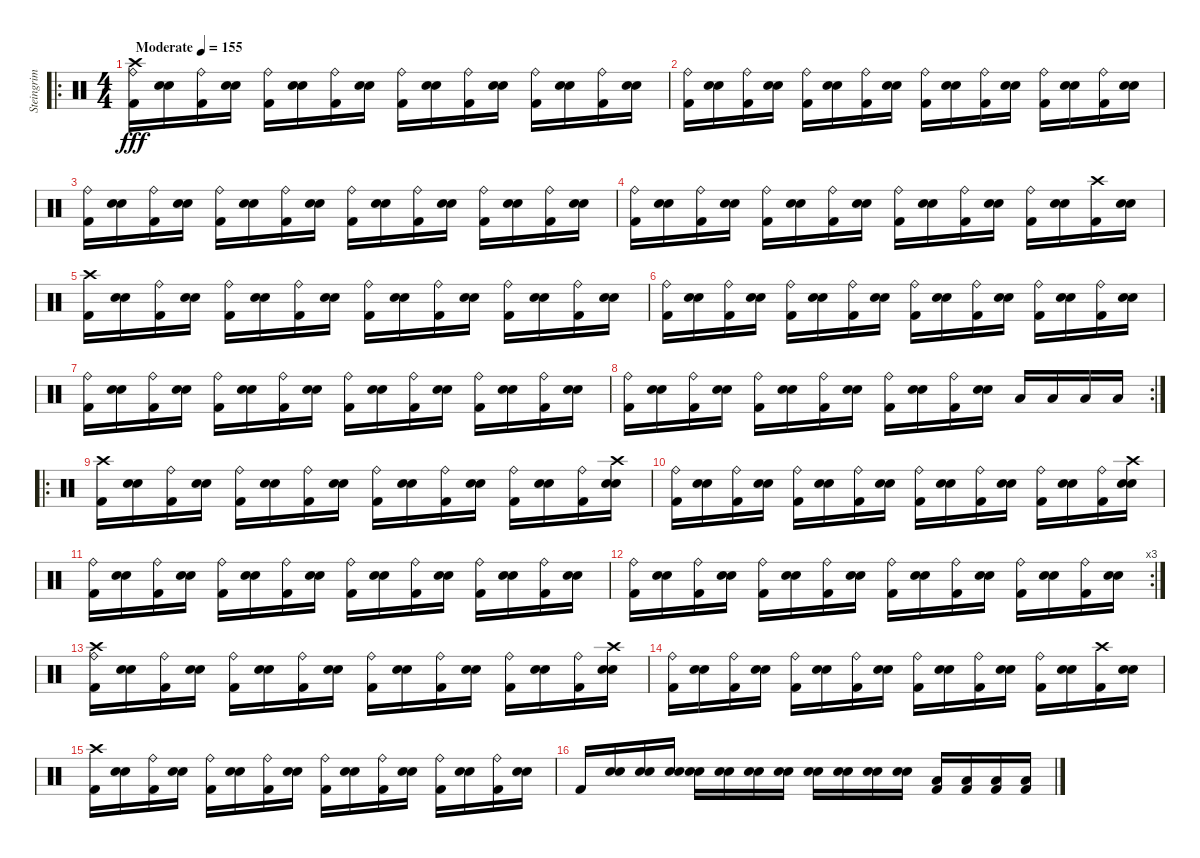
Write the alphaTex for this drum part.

\track ("Steingrim" "Steingrim") {instrument percussion}
\staff {score}
\articulation defaults
\ro
\ts (4 4)
\tempo (155 "Moderate")
\clef neutral
\ks c
("Kick (hit) 2" "Ride (bell)" "Crash high (hit)").16{dy fff} ("Snare (hit) 2" "Electric Snare (hit)").16 ("Kick (hit) 2" "Ride (bell)").16 ("Snare (hit) 2" "Electric Snare (hit)").16 ("Kick (hit) 2" "Ride (bell)").16 ("Snare (hit) 2" "Electric Snare (hit)").16 ("Kick (hit) 2" "Ride (bell)").16 ("Snare (hit) 2" "Electric Snare (hit)").16 ("Kick (hit) 2" "Ride (bell)").16 ("Snare (hit) 2" "Electric Snare (hit)").16 ("Kick (hit) 2" "Ride (bell)").16 ("Snare (hit) 2" "Electric Snare (hit)").16 ("Kick (hit) 2" "Ride (bell)").16 ("Snare (hit) 2" "Electric Snare (hit)").16 ("Kick (hit) 2" "Ride (bell)").16 ("Snare (hit) 2" "Electric Snare (hit)").16 |
("Kick (hit) 2" "Ride (bell)").16 ("Snare (hit) 2" "Electric Snare (hit)").16 ("Kick (hit) 2" "Ride (bell)").16 ("Snare (hit) 2" "Electric Snare (hit)").16 ("Kick (hit) 2" "Ride (bell)").16 ("Snare (hit) 2" "Electric Snare (hit)").16 ("Kick (hit) 2" "Ride (bell)").16 ("Snare (hit) 2" "Electric Snare (hit)").16 ("Kick (hit) 2" "Ride (bell)").16 ("Snare (hit) 2" "Electric Snare (hit)").16 ("Kick (hit) 2" "Ride (bell)").16 ("Snare (hit) 2" "Electric Snare (hit)").16 ("Kick (hit) 2" "Ride (bell)").16 ("Snare (hit) 2" "Electric Snare (hit)").16 ("Kick (hit) 2" "Ride (bell)").16 ("Snare (hit) 2" "Electric Snare (hit)").16 |
("Kick (hit) 2" "Ride (bell)").16 ("Snare (hit) 2" "Electric Snare (hit)").16 ("Kick (hit) 2" "Ride (bell)").16 ("Snare (hit) 2" "Electric Snare (hit)").16 ("Kick (hit) 2" "Ride (bell)").16 ("Snare (hit) 2" "Electric Snare (hit)").16 ("Kick (hit) 2" "Ride (bell)").16 ("Snare (hit) 2" "Electric Snare (hit)").16 ("Kick (hit) 2" "Ride (bell)").16 ("Snare (hit) 2" "Electric Snare (hit)").16 ("Kick (hit) 2" "Ride (bell)").16 ("Snare (hit) 2" "Electric Snare (hit)").16 ("Kick (hit) 2" "Ride (bell)").16 ("Snare (hit) 2" "Electric Snare (hit)").16 ("Kick (hit) 2" "Ride (bell)").16 ("Snare (hit) 2" "Electric Snare (hit)").16 |
("Kick (hit) 2" "Ride (bell)").16 ("Snare (hit) 2" "Electric Snare (hit)").16 ("Kick (hit) 2" "Ride (bell)").16 ("Snare (hit) 2" "Electric Snare (hit)").16 ("Kick (hit) 2" "Ride (bell)").16 ("Snare (hit) 2" "Electric Snare (hit)").16 ("Kick (hit) 2" "Ride (bell)").16 ("Snare (hit) 2" "Electric Snare (hit)").16 ("Kick (hit) 2" "Ride (bell)").16 ("Snare (hit) 2" "Electric Snare (hit)").16 ("Kick (hit) 2" "Ride (bell)").16 ("Snare (hit) 2" "Electric Snare (hit)").16 ("Kick (hit) 2" "Ride (bell)").16 ("Snare (hit) 2" "Electric Snare (hit)").16 ("Kick (hit) 2" "Crash high (hit)").16 ("Snare (hit) 2" "Electric Snare (hit)").16 |
("Kick (hit) 2" "Crash high (hit)").16 ("Snare (hit) 2" "Electric Snare (hit)").16 ("Kick (hit) 2" "Ride (bell)").16 ("Snare (hit) 2" "Electric Snare (hit)").16 ("Kick (hit) 2" "Ride (bell)").16 ("Snare (hit) 2" "Electric Snare (hit)").16 ("Kick (hit) 2" "Ride (bell)").16 ("Snare (hit) 2" "Electric Snare (hit)").16 ("Kick (hit) 2" "Ride (bell)").16 ("Snare (hit) 2" "Electric Snare (hit)").16 ("Kick (hit) 2" "Ride (bell)").16 ("Snare (hit) 2" "Electric Snare (hit)").16 ("Kick (hit) 2" "Ride (bell)").16 ("Snare (hit) 2" "Electric Snare (hit)").16 ("Kick (hit) 2" "Ride (bell)").16 ("Snare (hit) 2" "Electric Snare (hit)").16 |
("Kick (hit) 2" "Ride (bell)").16 ("Snare (hit) 2" "Electric Snare (hit)").16 ("Kick (hit) 2" "Ride (bell)").16 ("Snare (hit) 2" "Electric Snare (hit)").16 ("Kick (hit) 2" "Ride (bell)").16 ("Snare (hit) 2" "Electric Snare (hit)").16 ("Kick (hit) 2" "Ride (bell)").16 ("Snare (hit) 2" "Electric Snare (hit)").16 ("Kick (hit) 2" "Ride (bell)").16 ("Snare (hit) 2" "Electric Snare (hit)").16 ("Kick (hit) 2" "Ride (bell)").16 ("Snare (hit) 2" "Electric Snare (hit)").16 ("Kick (hit) 2" "Ride (bell)").16 ("Snare (hit) 2" "Electric Snare (hit)").16 ("Kick (hit) 2" "Ride (bell)").16 ("Snare (hit) 2" "Electric Snare (hit)").16 |
("Kick (hit) 2" "Ride (bell)").16 ("Snare (hit) 2" "Electric Snare (hit)").16 ("Kick (hit) 2" "Ride (bell)").16 ("Snare (hit) 2" "Electric Snare (hit)").16 ("Kick (hit) 2" "Ride (bell)").16 ("Snare (hit) 2" "Electric Snare (hit)").16 ("Kick (hit) 2" "Ride (bell)").16 ("Snare (hit) 2" "Electric Snare (hit)").16 ("Kick (hit) 2" "Ride (bell)").16 ("Snare (hit) 2" "Electric Snare (hit)").16 ("Kick (hit) 2" "Ride (bell)").16 ("Snare (hit) 2" "Electric Snare (hit)").16 ("Kick (hit) 2" "Ride (bell)").16 ("Snare (hit) 2" "Electric Snare (hit)").16 ("Kick (hit) 2" "Ride (bell)").16 ("Snare (hit) 2" "Electric Snare (hit)").16 |
\rc 2
("Kick (hit) 2" "Ride (bell)").16 ("Snare (hit) 2" "Electric Snare (hit)").16 ("Kick (hit) 2" "Ride (bell)").16 ("Snare (hit) 2" "Electric Snare (hit)").16 ("Kick (hit) 2" "Ride (bell)").16 ("Snare (hit) 2" "Electric Snare (hit)").16 ("Kick (hit) 2" "Ride (bell)").16 ("Snare (hit) 2" "Electric Snare (hit)").16 ("Kick (hit) 2" "Ride (bell)").16 ("Snare (hit) 2" "Electric Snare (hit)").16 ("Kick (hit) 2" "Ride (bell)").16 ("Snare (hit) 2" "Electric Snare (hit)").16 "Low Tom (hit)".16 "Low Tom (hit)".16 "Low Tom (hit)".16 "Low Tom (hit)".16 |
\ro
("Kick (hit) 2" "Crash high (hit)").16 ("Snare (hit) 2" "Electric Snare (hit)").16 ("Kick (hit) 2" "Ride (bell)").16 ("Snare (hit) 2" "Electric Snare (hit)").16 ("Kick (hit) 2" "Ride (bell)").16 ("Snare (hit) 2" "Electric Snare (hit)").16 ("Kick (hit) 2" "Ride (bell)").16 ("Snare (hit) 2" "Electric Snare (hit)").16 ("Kick (hit) 2" "Ride (bell)").16 ("Snare (hit) 2" "Electric Snare (hit)").16 ("Kick (hit) 2" "Ride (bell)").16 ("Snare (hit) 2" "Electric Snare (hit)").16 ("Kick (hit) 2" "Ride (bell)").16 ("Snare (hit) 2" "Electric Snare (hit)").16 ("Kick (hit) 2" "Ride (bell)").16 ("Snare (hit) 2" "Electric Snare (hit)" "Crash high (hit)").16 |
("Kick (hit) 2" "Ride (bell)").16 ("Snare (hit) 2" "Electric Snare (hit)").16 ("Kick (hit) 2" "Ride (bell)").16 ("Snare (hit) 2" "Electric Snare (hit)").16 ("Kick (hit) 2" "Ride (bell)").16 ("Snare (hit) 2" "Electric Snare (hit)").16 ("Kick (hit) 2" "Ride (bell)").16 ("Snare (hit) 2" "Electric Snare (hit)").16 ("Kick (hit) 2" "Ride (bell)").16 ("Snare (hit) 2" "Electric Snare (hit)").16 ("Kick (hit) 2" "Ride (bell)").16 ("Snare (hit) 2" "Electric Snare (hit)").16 ("Kick (hit) 2" "Ride (bell)").16 ("Snare (hit) 2" "Electric Snare (hit)").16 ("Kick (hit) 2" "Ride (bell)").16 ("Snare (hit) 2" "Electric Snare (hit)" "Crash high (hit)").16 |
("Kick (hit) 2" "Ride (bell)").16 ("Snare (hit) 2" "Electric Snare (hit)").16 ("Kick (hit) 2" "Ride (bell)").16 ("Snare (hit) 2" "Electric Snare (hit)").16 ("Kick (hit) 2" "Ride (bell)").16 ("Snare (hit) 2" "Electric Snare (hit)").16 ("Kick (hit) 2" "Ride (bell)").16 ("Snare (hit) 2" "Electric Snare (hit)").16 ("Kick (hit) 2" "Ride (bell)").16 ("Snare (hit) 2" "Electric Snare (hit)").16 ("Kick (hit) 2" "Ride (bell)").16 ("Snare (hit) 2" "Electric Snare (hit)").16 ("Kick (hit) 2" "Ride (bell)").16 ("Snare (hit) 2" "Electric Snare (hit)").16 ("Kick (hit) 2" "Ride (bell)").16 ("Snare (hit) 2" "Electric Snare (hit)").16 |
\rc 3
("Kick (hit) 2" "Ride (bell)").16 ("Snare (hit) 2" "Electric Snare (hit)").16 ("Kick (hit) 2" "Ride (bell)").16 ("Snare (hit) 2" "Electric Snare (hit)").16 ("Kick (hit) 2" "Ride (bell)").16 ("Snare (hit) 2" "Electric Snare (hit)").16 ("Kick (hit) 2" "Ride (bell)").16 ("Snare (hit) 2" "Electric Snare (hit)").16 ("Kick (hit) 2" "Ride (bell)").16 ("Snare (hit) 2" "Electric Snare (hit)").16 ("Kick (hit) 2" "Ride (bell)").16 ("Snare (hit) 2" "Electric Snare (hit)").16 ("Kick (hit) 2" "Ride (bell)").16 ("Snare (hit) 2" "Electric Snare (hit)").16 ("Kick (hit) 2" "Ride (bell)").16 ("Snare (hit) 2" "Electric Snare (hit)").16 |
("Kick (hit) 2" "Ride (bell)" "Crash high (hit)").16 ("Snare (hit) 2" "Electric Snare (hit)").16 ("Kick (hit) 2" "Ride (bell)").16 ("Snare (hit) 2" "Electric Snare (hit)").16 ("Kick (hit) 2" "Ride (bell)").16 ("Snare (hit) 2" "Electric Snare (hit)").16 ("Kick (hit) 2" "Ride (bell)").16 ("Snare (hit) 2" "Electric Snare (hit)").16 ("Kick (hit) 2" "Ride (bell)").16 ("Snare (hit) 2" "Electric Snare (hit)").16 ("Kick (hit) 2" "Ride (bell)").16 ("Snare (hit) 2" "Electric Snare (hit)").16 ("Kick (hit) 2" "Ride (bell)").16 ("Snare (hit) 2" "Electric Snare (hit)").16 ("Kick (hit) 2" "Ride (bell)").16 ("Snare (hit) 2" "Electric Snare (hit)" "Crash high (hit)").16 |
("Kick (hit) 2" "Ride (bell)").16 ("Snare (hit) 2" "Electric Snare (hit)").16 ("Kick (hit) 2" "Ride (bell)").16 ("Snare (hit) 2" "Electric Snare (hit)").16 ("Kick (hit) 2" "Ride (bell)").16 ("Snare (hit) 2" "Electric Snare (hit)").16 ("Kick (hit) 2" "Ride (bell)").16 ("Snare (hit) 2" "Electric Snare (hit)").16 ("Kick (hit) 2" "Ride (bell)").16 ("Snare (hit) 2" "Electric Snare (hit)").16 ("Kick (hit) 2" "Ride (bell)").16 ("Snare (hit) 2" "Electric Snare (hit)").16 ("Kick (hit) 2" "Ride (bell)").16 ("Snare (hit) 2" "Electric Snare (hit)").16 ("Kick (hit) 2" "Crash high (hit)").16 ("Snare (hit) 2" "Electric Snare (hit)").16 |
("Kick (hit) 2" "Crash high (hit)").16 ("Snare (hit) 2" "Electric Snare (hit)").16 ("Kick (hit) 2" "Ride (bell)").16 ("Snare (hit) 2" "Electric Snare (hit)").16 ("Kick (hit) 2" "Ride (bell)").16 ("Snare (hit) 2" "Electric Snare (hit)").16 ("Kick (hit) 2" "Ride (bell)").16 ("Snare (hit) 2" "Electric Snare (hit)").16 ("Kick (hit) 2" "Ride (bell)").16 ("Snare (hit) 2" "Electric Snare (hit)").16 ("Kick (hit) 2" "Ride (bell)").16 ("Snare (hit) 2" "Electric Snare (hit)").16 ("Kick (hit) 2" "Ride (bell)").16 ("Snare (hit) 2" "Electric Snare (hit)").16 ("Kick (hit) 2" "Ride (bell)").16 ("Snare (hit) 2" "Electric Snare (hit)").16 |
"Kick (hit) 2".16 ("Snare (hit) 2" "Electric Snare (hit)").16 ("Snare (hit) 2" "Electric Snare (hit)").16 ("Snare (hit) 2" "Electric Snare (hit)").16 ("Snare (hit) 2" "Electric Snare (hit)").16 ("Snare (hit) 2" "Electric Snare (hit)").16 ("Snare (hit) 2" "Electric Snare (hit)").16 ("Snare (hit) 2" "Electric Snare (hit)").16 ("Snare (hit) 2" "Electric Snare (hit)").16 ("Snare (hit) 2" "Electric Snare (hit)").16 ("Snare (hit) 2" "Electric Snare (hit)").16 ("Snare (hit) 2" "Electric Snare (hit)").16 ("Low Tom (hit)" "Kick (hit) 2").16 ("Low Tom (hit)" "Kick (hit) 2").16 ("Low Tom (hit)" "Kick (hit) 2").16 ("Low Tom (hit)" "Kick (hit) 2").16
